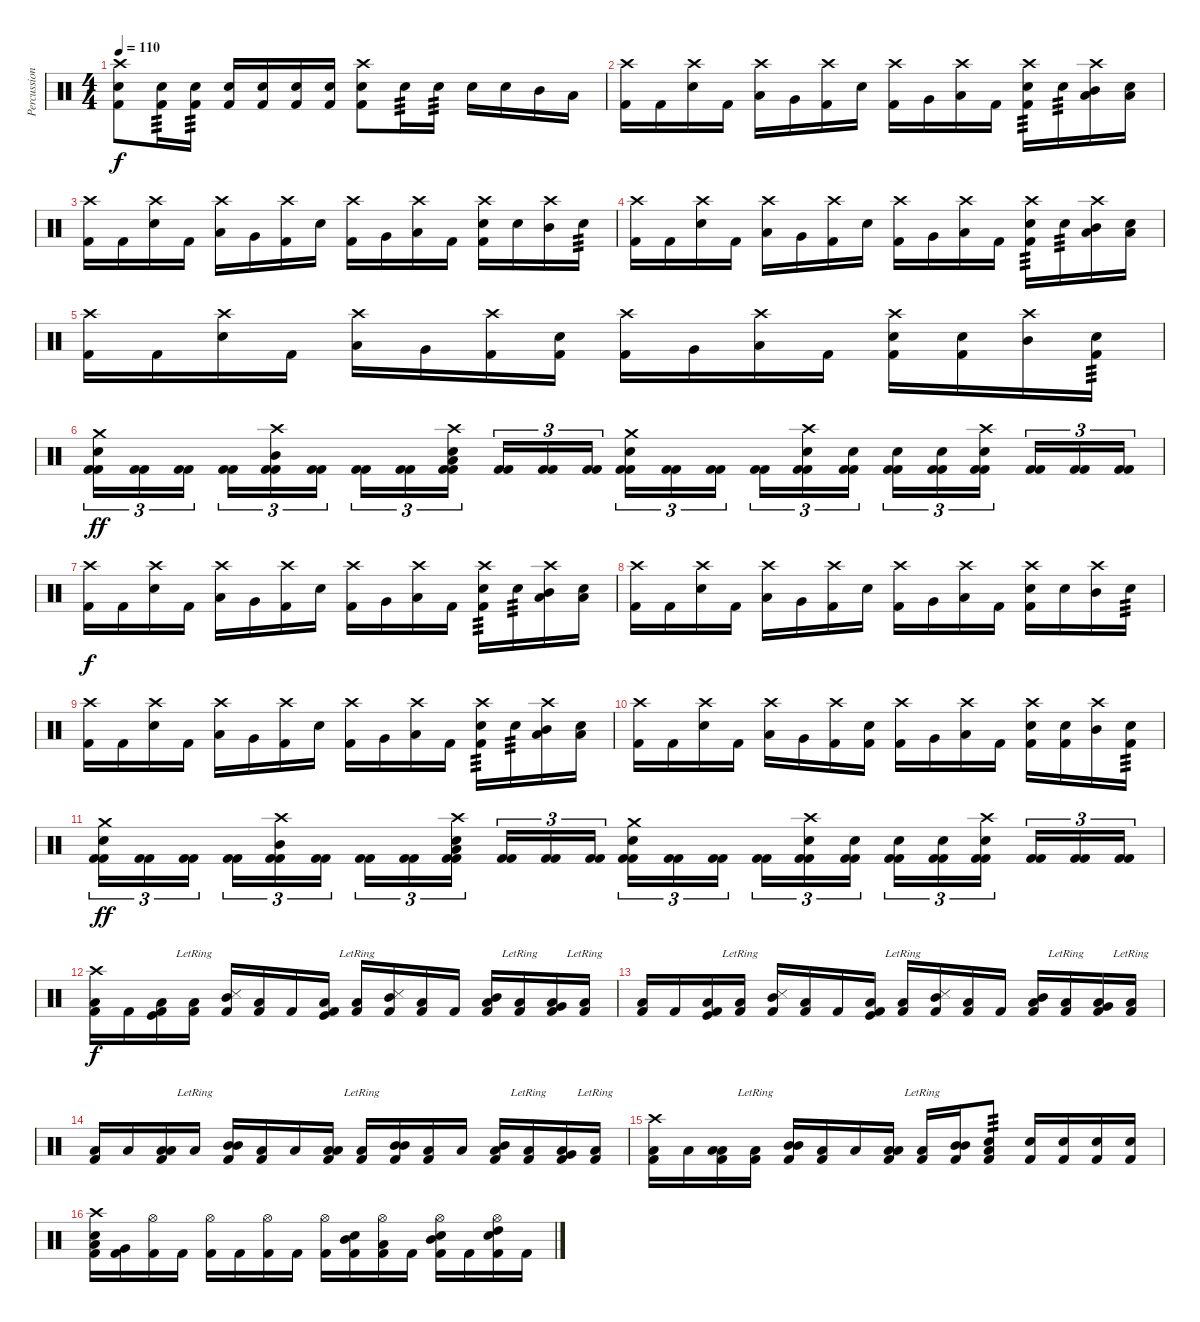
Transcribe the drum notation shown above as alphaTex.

\track ("Percussion" "Percussion") {instrument percussion}
\staff {score}
\articulation defaults
\ts (4 4)
\tempo 110
\clef neutral
\ks c
("Crash high (hit)" "Electric Snare (hit)" "Kick (hit) 2").8{dy f} ("Electric Snare (hit)" "Kick (hit) 2").16{tp 3} ("Electric Snare (hit)" "Kick (hit) 2").16{tp 3} ("Electric Snare (hit)" "Kick (hit) 2").16 ("Electric Snare (hit)" "Kick (hit) 2").16 ("Electric Snare (hit)" "Kick (hit) 2").16 ("Electric Snare (hit)" "Kick (hit) 2").16 ("Crash high (hit)" "Electric Snare (hit)" "Kick (hit) 2").8 "Electric Snare (hit)".16{tp 3} "Electric Snare (hit)".16{tp 3} "Electric Snare (hit)".16 "Electric Snare (hit)".16 "Mid Tom (hit)".16 "Low Tom (hit)".16 |
("Crash high (hit)" "Kick (hit) 2").16 "Kick (hit) 2".16 ("Crash high (hit)" "Electric Snare (hit)").16 "Kick (hit) 2".16 ("Crash high (hit)" "Low Tom (hit)").16 "Very Low Tom (hit)".16 ("Crash high (hit)" "Kick (hit) 2").16 "Electric Snare (hit)".16 ("Crash high (hit)" "Kick (hit) 2").16 "Very Low Tom (hit)".16 ("Crash high (hit)" "Low Floor Tom (hit)").16 "Kick (hit) 2".16 ("Crash high (hit)" "Electric Snare (hit)" "Kick (hit) 2").16{tp 3} "Electric Snare (hit)".16{tp 3} ("Crash high (hit)" "Low Tom (hit)" "Mid Tom (hit)").16 ("Electric Snare (hit)" "Low Tom (hit)").16 |
("Crash high (hit)" "Kick (hit) 2").16 "Kick (hit) 2".16 ("Crash high (hit)" "Electric Snare (hit)").16 "Kick (hit) 2".16 ("Crash high (hit)" "Low Tom (hit)").16 "Very Low Tom (hit)".16 ("Crash high (hit)" "Kick (hit) 2").16 "Electric Snare (hit)".16 ("Crash high (hit)" "Kick (hit) 2").16 "Very Low Tom (hit)".16 ("Crash high (hit)" "Low Floor Tom (hit)").16 "Kick (hit) 2".16 ("Crash high (hit)" "Electric Snare (hit)" "Kick (hit) 2").16 "Electric Snare (hit)".16 ("Crash high (hit)" "Mid Tom (hit)").16 "Electric Snare (hit)".16{tp 3} |
("Crash high (hit)" "Kick (hit) 2").16 "Kick (hit) 2".16 ("Crash high (hit)" "Electric Snare (hit)").16 "Kick (hit) 2".16 ("Crash high (hit)" "Low Tom (hit)").16 "Very Low Tom (hit)".16 ("Crash high (hit)" "Kick (hit) 2").16 "Electric Snare (hit)".16 ("Crash high (hit)" "Kick (hit) 2").16 "Very Low Tom (hit)".16 ("Crash high (hit)" "Low Floor Tom (hit)").16 "Kick (hit) 2".16 ("Crash high (hit)" "Electric Snare (hit)" "Kick (hit) 2").16{tp 3} "Electric Snare (hit)".16{tp 3} ("Crash high (hit)" "Low Tom (hit)" "Mid Tom (hit)").16 ("Electric Snare (hit)" "Low Tom (hit)").16 |
("Crash high (hit)" "Kick (hit) 2").16 "Kick (hit) 2".16 ("Crash high (hit)" "Electric Snare (hit)").16 "Kick (hit) 2".16 ("Crash high (hit)" "Low Tom (hit)").16 "Very Low Tom (hit)".16 ("Crash high (hit)" "Kick (hit) 2").16 ("Electric Snare (hit)" "Kick (hit) 2").16 ("Crash high (hit)" "Kick (hit) 2").16 "Very Low Tom (hit)".16 ("Crash high (hit)" "Low Floor Tom (hit)").16 "Kick (hit) 2".16 ("Crash high (hit)" "Electric Snare (hit)" "Kick (hit) 2").16 ("Electric Snare (hit)" "Kick (hit) 2").16 ("Crash high (hit)" "Mid Tom (hit)").16 ("Electric Snare (hit)" "Kick (hit) 2").16{tp 3} |
("Crash medium (hit)" "Electric Snare (hit)" "Kick (hit) 2" "Kick (hit) 2").16{tu (3 2) dy ff} ("Kick (hit) 2" "Kick (hit) 2").16{tu (3 2)} ("Kick (hit) 2" "Kick (hit) 2").16{tu (3 2)} ("Kick (hit) 2" "Kick (hit) 2").16{tu (3 2)} ("Crash high (hit)" "Kick (hit) 2" "Mid Tom (hit)" "Kick (hit) 2").16{tu (3 2)} ("Kick (hit) 2" "Kick (hit) 2").16{tu (3 2)} ("Kick (hit) 2" "Kick (hit) 2").16{tu (3 2)} ("Kick (hit) 2" "Kick (hit) 2").16{tu (3 2)} ("Crash high (hit)" "Electric Snare (hit)" "Kick (hit) 2" "Low Tom (hit)" "Kick (hit) 2").16{tu (3 2)} ("Kick (hit) 2" "Kick (hit) 2").16{tu (3 2)} ("Kick (hit) 2" "Kick (hit) 2").16{tu (3 2)} ("Kick (hit) 2" "Kick (hit) 2").16{tu (3 2)} ("Crash medium (hit)" "Electric Snare (hit)" "Kick (hit) 2" "Kick (hit) 2").16{tu (3 2)} ("Kick (hit) 2" "Kick (hit) 2").16{tu (3 2)} ("Kick (hit) 2" "Kick (hit) 2").16{tu (3 2)} ("Kick (hit) 2" "Kick (hit) 2").16{tu (3 2)} ("Crash high (hit)" "Electric Snare (hit)" "Kick (hit) 2" "Kick (hit) 2").16{tu (3 2)} ("Electric Snare (hit)" "Kick (hit) 2" "Kick (hit) 2").16{tu (3 2)} ("Electric Snare (hit)" "Kick (hit) 2" "Kick (hit) 2").16{tu (3 2)} ("Electric Snare (hit)" "Kick (hit) 2" "Kick (hit) 2").16{tu (3 2)} ("Crash high (hit)" "Electric Snare (hit)" "Kick (hit) 2" "Kick (hit) 2").16{tu (3 2)} ("Kick (hit) 2" "Kick (hit) 2").16{tu (3 2)} ("Kick (hit) 2" "Kick (hit) 2").16{tu (3 2)} ("Kick (hit) 2" "Kick (hit) 2").16{tu (3 2)} |
("Crash high (hit)" "Kick (hit) 2").16{dy f} "Kick (hit) 2".16 ("Crash high (hit)" "Electric Snare (hit)").16 "Kick (hit) 2".16 ("Crash high (hit)" "Low Tom (hit)").16 "Very Low Tom (hit)".16 ("Crash high (hit)" "Kick (hit) 2").16 "Electric Snare (hit)".16 ("Crash high (hit)" "Kick (hit) 2").16 "Very Low Tom (hit)".16 ("Crash high (hit)" "Low Floor Tom (hit)").16 "Kick (hit) 2".16 ("Crash high (hit)" "Electric Snare (hit)" "Kick (hit) 2").16{tp 3} "Electric Snare (hit)".16{tp 3} ("Crash high (hit)" "Low Tom (hit)" "Mid Tom (hit)").16 ("Electric Snare (hit)" "Low Tom (hit)").16 |
("Crash high (hit)" "Kick (hit) 2").16 "Kick (hit) 2".16 ("Crash high (hit)" "Electric Snare (hit)").16 "Kick (hit) 2".16 ("Crash high (hit)" "Low Tom (hit)").16 "Very Low Tom (hit)".16 ("Crash high (hit)" "Kick (hit) 2").16 "Electric Snare (hit)".16 ("Crash high (hit)" "Kick (hit) 2").16 "Very Low Tom (hit)".16 ("Crash high (hit)" "Low Floor Tom (hit)").16 "Kick (hit) 2".16 ("Crash high (hit)" "Electric Snare (hit)" "Kick (hit) 2").16 "Electric Snare (hit)".16 ("Crash high (hit)" "Mid Tom (hit)").16 "Electric Snare (hit)".16{tp 3} |
("Crash high (hit)" "Kick (hit) 2").16 "Kick (hit) 2".16 ("Crash high (hit)" "Electric Snare (hit)").16 "Kick (hit) 2".16 ("Crash high (hit)" "Low Tom (hit)").16 "Very Low Tom (hit)".16 ("Crash high (hit)" "Kick (hit) 2").16 "Electric Snare (hit)".16 ("Crash high (hit)" "Kick (hit) 2").16 "Very Low Tom (hit)".16 ("Crash high (hit)" "Low Floor Tom (hit)").16 "Kick (hit) 2".16 ("Crash high (hit)" "Electric Snare (hit)" "Kick (hit) 2").16{tp 3} "Electric Snare (hit)".16{tp 3} ("Crash high (hit)" "Low Tom (hit)" "Mid Tom (hit)").16 ("Electric Snare (hit)" "Low Tom (hit)").16 |
("Crash high (hit)" "Kick (hit) 2").16 "Kick (hit) 2".16 ("Crash high (hit)" "Electric Snare (hit)").16 "Kick (hit) 2".16 ("Crash high (hit)" "Low Tom (hit)").16 "Very Low Tom (hit)".16 ("Crash high (hit)" "Kick (hit) 2").16 ("Electric Snare (hit)" "Kick (hit) 2").16 ("Crash high (hit)" "Kick (hit) 2").16 "Very Low Tom (hit)".16 ("Crash high (hit)" "Low Floor Tom (hit)").16 "Kick (hit) 2".16 ("Crash high (hit)" "Electric Snare (hit)" "Kick (hit) 2").16 ("Electric Snare (hit)" "Kick (hit) 2").16 ("Crash high (hit)" "Mid Tom (hit)").16 ("Electric Snare (hit)" "Kick (hit) 2").16{tp 3} |
("Crash medium (hit)" "Electric Snare (hit)" "Kick (hit) 2" "Kick (hit) 2").16{tu (3 2) dy ff} ("Kick (hit) 2" "Kick (hit) 2").16{tu (3 2)} ("Kick (hit) 2" "Kick (hit) 2").16{tu (3 2)} ("Kick (hit) 2" "Kick (hit) 2").16{tu (3 2)} ("Crash high (hit)" "Kick (hit) 2" "Mid Tom (hit)" "Kick (hit) 2").16{tu (3 2)} ("Kick (hit) 2" "Kick (hit) 2").16{tu (3 2)} ("Kick (hit) 2" "Kick (hit) 2").16{tu (3 2)} ("Kick (hit) 2" "Kick (hit) 2").16{tu (3 2)} ("Crash high (hit)" "Electric Snare (hit)" "Kick (hit) 2" "Low Tom (hit)" "Kick (hit) 2").16{tu (3 2)} ("Kick (hit) 2" "Kick (hit) 2").16{tu (3 2)} ("Kick (hit) 2" "Kick (hit) 2").16{tu (3 2)} ("Kick (hit) 2" "Kick (hit) 2").16{tu (3 2)} ("Crash medium (hit)" "Electric Snare (hit)" "Kick (hit) 2" "Kick (hit) 2").16{tu (3 2)} ("Kick (hit) 2" "Kick (hit) 2").16{tu (3 2)} ("Kick (hit) 2" "Kick (hit) 2").16{tu (3 2)} ("Kick (hit) 2" "Kick (hit) 2").16{tu (3 2)} ("Crash high (hit)" "Electric Snare (hit)" "Kick (hit) 2" "Kick (hit) 2").16{tu (3 2)} ("Electric Snare (hit)" "Kick (hit) 2" "Kick (hit) 2").16{tu (3 2)} ("Electric Snare (hit)" "Kick (hit) 2" "Kick (hit) 2").16{tu (3 2)} ("Electric Snare (hit)" "Kick (hit) 2" "Kick (hit) 2").16{tu (3 2)} ("Crash high (hit)" "Electric Snare (hit)" "Kick (hit) 2" "Kick (hit) 2").16{tu (3 2)} ("Kick (hit) 2" "Kick (hit) 2").16{tu (3 2)} ("Kick (hit) 2" "Kick (hit) 2").16{tu (3 2)} ("Kick (hit) 2" "Kick (hit) 2").16{tu (3 2)} |
("Crash high (hit)" "Low Floor Tom (hit)" "Kick (hit) 2").16{dy f} "Kick (hit) 2".16 ("Low Tom (hit)" "Kick (hit)" "Kick (hit) 2").16 ("Low Floor Tom (hit)"{lr} "Kick (hit) 2").16 ("Mid Tom (hit)" "Snare (side stick) 3" "Kick (hit) 2").16 ("Low Floor Tom (hit)" "Kick (hit) 2").16 "Kick (hit) 2".16 ("Low Tom (hit)" "Kick (hit)" "Kick (hit) 2").16 ("Low Floor Tom (hit)"{lr} "Kick (hit) 2").16 ("Mid Tom (hit)" "Snare (side stick) 3" "Kick (hit) 2").16 ("Low Floor Tom (hit)" "Kick (hit) 2").16 "Kick (hit) 2".16 ("Mid Tom (hit)" "Low Tom (hit)" "Kick (hit) 2").16 ("Low Floor Tom (hit)"{lr} "Kick (hit) 2").16 ("Low Tom (hit)" "Very Low Tom (hit)" "Kick (hit) 2").16 ("Low Floor Tom (hit)"{lr} "Kick (hit) 2").16 |
("Low Floor Tom (hit)" "Kick (hit) 2").16 "Kick (hit) 2".16 ("Low Tom (hit)" "Kick (hit)" "Kick (hit) 2").16 ("Low Floor Tom (hit)"{lr} "Kick (hit) 2").16 ("Mid Tom (hit)" "Snare (side stick) 3" "Kick (hit) 2").16 ("Low Floor Tom (hit)" "Kick (hit) 2").16 "Kick (hit) 2".16 ("Low Tom (hit)" "Kick (hit)" "Kick (hit) 2").16 ("Low Floor Tom (hit)"{lr} "Kick (hit) 2").16 ("Mid Tom (hit)" "Snare (side stick) 3" "Kick (hit) 2").16 ("Low Floor Tom (hit)" "Kick (hit) 2").16 "Kick (hit) 2".16 ("Mid Tom (hit)" "Low Tom (hit)" "Kick (hit) 2").16 ("Low Floor Tom (hit)"{lr} "Kick (hit) 2").16 ("Low Tom (hit)" "Very Low Tom (hit)" "Kick (hit) 2").16 ("Low Floor Tom (hit)"{lr} "Kick (hit) 2").16 |
("Low Floor Tom (hit)" "Kick (hit) 2").16 "Low Floor Tom (hit)".16 ("Low Tom (hit)" "Low Tom (hit)" "Kick (hit) 2").16 "Low Floor Tom (hit)"{lr}.16 ("Mid Tom (hit)" "Mid Tom (hit)" "Kick (hit) 2").16 ("Low Floor Tom (hit)" "Kick (hit) 2").16 "Low Floor Tom (hit)".16 ("Low Tom (hit)" "Low Tom (hit)" "Kick (hit) 2").16 ("Low Floor Tom (hit)"{lr} "Kick (hit) 2").16 ("Mid Tom (hit)" "Mid Tom (hit)" "Kick (hit) 2").16 ("Low Floor Tom (hit)" "Kick (hit) 2").16 "Low Floor Tom (hit)".16 ("Mid Tom (hit)" "Low Tom (hit)" "Kick (hit) 2").16 ("Low Floor Tom (hit)"{lr} "Kick (hit) 2").16 ("Low Tom (hit)" "Very Low Tom (hit)" "Kick (hit) 2").16 ("Low Floor Tom (hit)"{lr} "Kick (hit) 2").16 |
("Crash high (hit)" "Low Floor Tom (hit)" "Kick (hit) 2").16 "Low Floor Tom (hit)".16 ("Low Tom (hit)" "Low Tom (hit)" "Kick (hit) 2").16 ("Low Floor Tom (hit)"{lr} "Kick (hit) 2").16 ("Mid Tom (hit)" "Mid Tom (hit)" "Kick (hit) 2").16 ("Low Floor Tom (hit)" "Kick (hit) 2").16 "Low Floor Tom (hit)".16 ("Low Tom (hit)" "Low Tom (hit)" "Kick (hit) 2").16 ("Low Floor Tom (hit)"{lr} "Kick (hit) 2").16 ("Mid Tom (hit)" "Mid Tom (hit)" "Kick (hit) 2").16 ("Electric Snare (hit)" "Low Floor Tom (hit)" "Kick (hit) 2").8{tp 3} ("Electric Snare (hit)" "Kick (hit) 2").16 ("Electric Snare (hit)" "Kick (hit) 2").16 ("Electric Snare (hit)" "Kick (hit) 2").16 ("Electric Snare (hit)" "Kick (hit) 2").16 |
("Crash high (hit)" "Electric Snare (hit)" "Low Tom (hit)" "Kick (hit) 2").16 ("Very Low Tom (hit)" "Kick (hit) 2").16 ("Hi-Hat (open)" "Kick (hit) 2").16 "Kick (hit) 2".16 ("Hi-Hat (open)" "Kick (hit) 2").16 "Kick (hit) 2".16 ("Hi-Hat (open)" "Kick (hit) 2").16 "Kick (hit) 2".16 ("Hi-Hat (open)" "Kick (hit) 2").16 ("Electric Snare (hit)" "Mid Tom (hit)" "Kick (hit) 2").16 ("Hi-Hat (open)" "Low Tom (hit)" "Kick (hit) 2").16 "Kick (hit) 2".16 ("Hi-Hat (open)" "Electric Snare (hit)" "Mid Tom (hit)" "Kick (hit) 2").16 "Kick (hit) 2".16 ("Hi-Hat (open)" "Electric Snare (hit)" "High Tom (hit)" "Kick (hit) 2").16 "Kick (hit) 2".16
